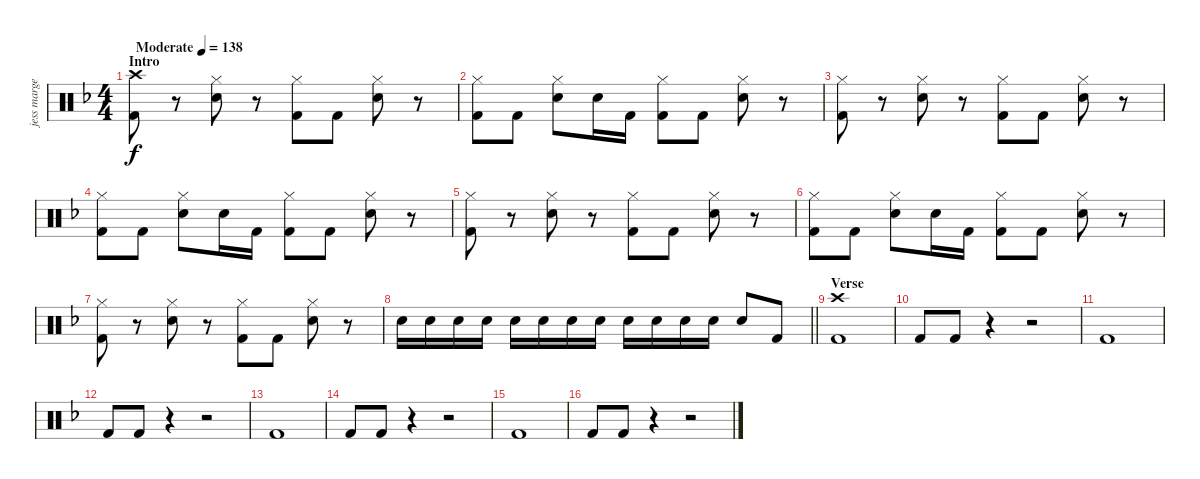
\track ("jess margera" "jess marge") {instrument percussion}
\staff {score}
\articulation defaults
\ts (4 4)
\section ("" "Intro")
\tempo (138 "Moderate")
\clef neutral
\ks f
("Crash high (hit)" "Kick (hit) 2").8{dy f} r.8 ("Hi-Hat (closed)" "Electric Snare (hit)").8 r.8 ("Hi-Hat (closed)" "Kick (hit) 2").8 "Kick (hit) 2".8 ("Hi-Hat (closed)" "Electric Snare (hit)").8 r.8 |
("Hi-Hat (closed)" "Kick (hit) 2").8 "Kick (hit) 2".8 ("Hi-Hat (closed)" "Electric Snare (hit)").8 "Electric Snare (hit)".16 "Kick (hit) 2".16 ("Hi-Hat (closed)" "Kick (hit) 2").8 "Kick (hit) 2".8 ("Hi-Hat (closed)" "Electric Snare (hit)").8 r.8 |
("Hi-Hat (closed)" "Kick (hit) 2").8 r.8 ("Hi-Hat (closed)" "Electric Snare (hit)").8 r.8 ("Hi-Hat (closed)" "Kick (hit) 2").8 "Kick (hit) 2".8 ("Hi-Hat (closed)" "Electric Snare (hit)").8 r.8 |
("Hi-Hat (closed)" "Kick (hit) 2").8 "Kick (hit) 2".8 ("Hi-Hat (closed)" "Electric Snare (hit)").8 "Electric Snare (hit)".16 "Kick (hit) 2".16 ("Hi-Hat (closed)" "Kick (hit) 2").8 "Kick (hit) 2".8 ("Hi-Hat (closed)" "Electric Snare (hit)").8 r.8 |
("Hi-Hat (closed)" "Kick (hit) 2").8 r.8 ("Hi-Hat (closed)" "Electric Snare (hit)").8 r.8 ("Hi-Hat (closed)" "Kick (hit) 2").8 "Kick (hit) 2".8 ("Hi-Hat (closed)" "Electric Snare (hit)").8 r.8 |
("Hi-Hat (closed)" "Kick (hit) 2").8 "Kick (hit) 2".8 ("Hi-Hat (closed)" "Electric Snare (hit)").8 "Electric Snare (hit)".16 "Kick (hit) 2".16 ("Hi-Hat (closed)" "Kick (hit) 2").8 "Kick (hit) 2".8 ("Hi-Hat (closed)" "Electric Snare (hit)").8 r.8 |
("Hi-Hat (closed)" "Kick (hit) 2").8 r.8 ("Hi-Hat (closed)" "Electric Snare (hit)").8 r.8 ("Hi-Hat (closed)" "Kick (hit) 2").8 "Kick (hit) 2".8 ("Hi-Hat (closed)" "Electric Snare (hit)").8 r.8 |
\barLineRight lightlight "Electric Snare (hit)".16 "Electric Snare (hit)".16 "Electric Snare (hit)".16 "Electric Snare (hit)".16 "Electric Snare (hit)".16 "Electric Snare (hit)".16 "Electric Snare (hit)".16 "Electric Snare (hit)".16 "Electric Snare (hit)".16 "Electric Snare (hit)".16 "Electric Snare (hit)".16 "Electric Snare (hit)".16 "Electric Snare (hit)".8 "Kick (hit) 2".8
|
\section ("" "Verse")
("Crash high (hit)" "Kick (hit) 2").1 |
"Kick (hit) 2".8 "Kick (hit) 2".8 r.4 r.2 |
"Kick (hit) 2".1 |
"Kick (hit) 2".8 "Kick (hit) 2".8 r.4 r.2 |
"Kick (hit) 2".1 |
"Kick (hit) 2".8 "Kick (hit) 2".8 r.4 r.2 |
"Kick (hit) 2".1 |
"Kick (hit) 2".8 "Kick (hit) 2".8 r.4 r.2
